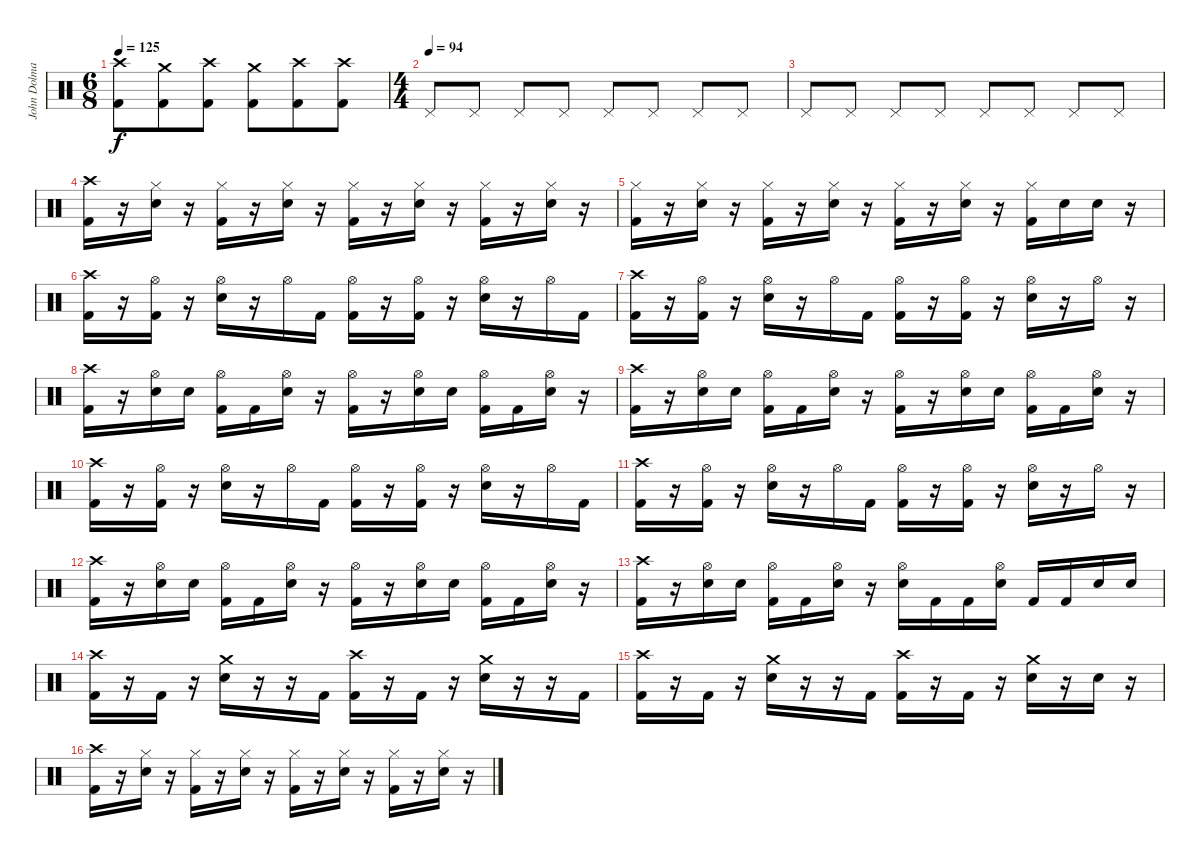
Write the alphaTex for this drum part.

\track ("John Dolmayan" "John Dolma") {instrument percussion}
\staff {score}
\articulation defaults
\ts (6 8)
\tempo 125
\clef neutral
\ks c
("Crash high (hit)" "Kick (hit) 2").8{dy f} ("Crash medium (hit)" "Kick (hit) 2").8 ("Crash high (hit)" "Kick (hit) 2").8 ("Crash medium (hit)" "Kick (hit) 2").8 ("Crash high (hit)" "Kick (hit) 2").8 ("Crash high (hit)" "Kick (hit) 2").8 |
\ts (4 4)
\tempo (94)
"Pedal Hi-Hat (hit)".8 "Pedal Hi-Hat (hit)".8 "Pedal Hi-Hat (hit)".8 "Pedal Hi-Hat (hit)".8 "Pedal Hi-Hat (hit)".8 "Pedal Hi-Hat (hit)".8 "Pedal Hi-Hat (hit)".8 "Pedal Hi-Hat (hit)".8 |
"Pedal Hi-Hat (hit)".8 "Pedal Hi-Hat (hit)".8 "Pedal Hi-Hat (hit)".8 "Pedal Hi-Hat (hit)".8 "Pedal Hi-Hat (hit)".8 "Pedal Hi-Hat (hit)".8 "Pedal Hi-Hat (hit)".8 "Pedal Hi-Hat (hit)".8 |
("Crash high (hit)" "Kick (hit) 2").16 r.16 ("Hi-Hat (closed)" "Electric Snare (hit)").16 r.16 ("Hi-Hat (closed)" "Kick (hit) 2").16 r.16 ("Hi-Hat (closed)" "Electric Snare (hit)").16 r.16 ("Hi-Hat (closed)" "Kick (hit) 2").16 r.16 ("Hi-Hat (closed)" "Electric Snare (hit)").16 r.16 ("Hi-Hat (closed)" "Kick (hit) 2").16 r.16 ("Hi-Hat (closed)" "Electric Snare (hit)").16 r.16 |
("Hi-Hat (closed)" "Kick (hit) 2").16 r.16 ("Hi-Hat (closed)" "Electric Snare (hit)").16 r.16 ("Hi-Hat (closed)" "Kick (hit) 2").16 r.16 ("Hi-Hat (closed)" "Electric Snare (hit)").16 r.16 ("Hi-Hat (closed)" "Kick (hit) 2").16 r.16 ("Hi-Hat (closed)" "Electric Snare (hit)").16 r.16 ("Hi-Hat (closed)" "Kick (hit) 2").16 "Electric Snare (hit)".16 "Electric Snare (hit)".16 r.16 |
("Crash high (hit)" "Kick (hit) 2").16 r.16 ("Hi-Hat (open)" "Kick (hit) 2").16 r.16 ("Hi-Hat (open)" "Electric Snare (hit)").16 r.16 "Hi-Hat (open)".16 "Kick (hit) 2".16 ("Hi-Hat (open)" "Kick (hit) 2").16 r.16 ("Hi-Hat (open)" "Kick (hit) 2").16 r.16 ("Hi-Hat (open)" "Electric Snare (hit)").16 r.16 "Hi-Hat (open)".16 "Kick (hit) 2".16 |
("Crash high (hit)" "Kick (hit) 2").16 r.16 ("Hi-Hat (open)" "Kick (hit) 2").16 r.16 ("Hi-Hat (open)" "Electric Snare (hit)").16 r.16 "Hi-Hat (open)".16 "Kick (hit) 2".16 ("Hi-Hat (open)" "Kick (hit) 2").16 r.16 ("Hi-Hat (open)" "Kick (hit) 2").16 r.16 ("Hi-Hat (open)" "Electric Snare (hit)").16 r.16 "Hi-Hat (open)".16 r.16 |
("Crash high (hit)" "Kick (hit) 2").16 r.16 ("Hi-Hat (open)" "Electric Snare (hit)").16 "Electric Snare (hit)".16 ("Hi-Hat (open)" "Kick (hit) 2").16 "Kick (hit) 2".16 ("Hi-Hat (open)" "Electric Snare (hit)").16 r.16 ("Hi-Hat (open)" "Kick (hit) 2").16 r.16 ("Hi-Hat (open)" "Electric Snare (hit)").16 "Electric Snare (hit)".16 ("Hi-Hat (open)" "Kick (hit) 2").16 "Kick (hit) 2".16 ("Hi-Hat (open)" "Electric Snare (hit)").16 r.16 |
("Crash high (hit)" "Kick (hit) 2").16 r.16 ("Hi-Hat (open)" "Electric Snare (hit)").16 "Electric Snare (hit)".16 ("Hi-Hat (open)" "Kick (hit) 2").16 "Kick (hit) 2".16 ("Hi-Hat (open)" "Electric Snare (hit)").16 r.16 ("Hi-Hat (open)" "Kick (hit) 2").16 r.16 ("Hi-Hat (open)" "Electric Snare (hit)").16 "Electric Snare (hit)".16 ("Hi-Hat (open)" "Kick (hit) 2").16 "Kick (hit) 2".16 ("Hi-Hat (open)" "Electric Snare (hit)").16 r.16 |
("Crash high (hit)" "Kick (hit) 2").16 r.16 ("Hi-Hat (open)" "Kick (hit) 2").16 r.16 ("Hi-Hat (open)" "Electric Snare (hit)").16 r.16 "Hi-Hat (open)".16 "Kick (hit) 2".16 ("Hi-Hat (open)" "Kick (hit) 2").16 r.16 ("Hi-Hat (open)" "Kick (hit) 2").16 r.16 ("Hi-Hat (open)" "Electric Snare (hit)").16 r.16 "Hi-Hat (open)".16 "Kick (hit) 2".16 |
("Crash high (hit)" "Kick (hit) 2").16 r.16 ("Hi-Hat (open)" "Kick (hit) 2").16 r.16 ("Hi-Hat (open)" "Electric Snare (hit)").16 r.16 "Hi-Hat (open)".16 "Kick (hit) 2".16 ("Hi-Hat (open)" "Kick (hit) 2").16 r.16 ("Hi-Hat (open)" "Kick (hit) 2").16 r.16 ("Hi-Hat (open)" "Electric Snare (hit)").16 r.16 "Hi-Hat (open)".16 r.16 |
("Crash high (hit)" "Kick (hit) 2").16 r.16 ("Hi-Hat (open)" "Electric Snare (hit)").16 "Electric Snare (hit)".16 ("Hi-Hat (open)" "Kick (hit) 2").16 "Kick (hit) 2".16 ("Hi-Hat (open)" "Electric Snare (hit)").16 r.16 ("Hi-Hat (open)" "Kick (hit) 2").16 r.16 ("Hi-Hat (open)" "Electric Snare (hit)").16 "Electric Snare (hit)".16 ("Hi-Hat (open)" "Kick (hit) 2").16 "Kick (hit) 2".16 ("Hi-Hat (open)" "Electric Snare (hit)").16 r.16 |
("Crash high (hit)" "Kick (hit) 2").16 r.16 ("Hi-Hat (open)" "Electric Snare (hit)").16 "Electric Snare (hit)".16 ("Hi-Hat (open)" "Kick (hit) 2").16 "Kick (hit) 2".16 ("Hi-Hat (open)" "Electric Snare (hit)").16 r.16 ("Hi-Hat (open)" "Electric Snare (hit)").16 "Kick (hit) 2".16 "Kick (hit) 2".16 ("Hi-Hat (open)" "Electric Snare (hit)").16 "Kick (hit) 2".16 "Kick (hit) 2".16 "Electric Snare (hit)".16 "Electric Snare (hit)".16 |
("Crash high (hit)" "Kick (hit) 2").16 r.16 "Kick (hit) 2".16 r.16 ("Crash medium (hit)" "Electric Snare (hit)").16 r.16 r.16 "Kick (hit) 2".16 ("Crash high (hit)" "Kick (hit) 2").16 r.16 "Kick (hit) 2".16 r.16 ("Crash medium (hit)" "Electric Snare (hit)").16 r.16 r.16 "Kick (hit) 2".16 |
("Crash high (hit)" "Kick (hit) 2").16 r.16 "Kick (hit) 2".16 r.16 ("Crash medium (hit)" "Electric Snare (hit)").16 r.16 r.16 "Kick (hit) 2".16 ("Crash high (hit)" "Kick (hit) 2").16 r.16 "Kick (hit) 2".16 r.16 ("Crash medium (hit)" "Electric Snare (hit)").16 r.16 "Electric Snare (hit)".16 r.16 |
("Crash high (hit)" "Kick (hit) 2").16 r.16 ("Hi-Hat (closed)" "Electric Snare (hit)").16 r.16 ("Hi-Hat (closed)" "Kick (hit) 2").16 r.16 ("Hi-Hat (closed)" "Electric Snare (hit)").16 r.16 ("Hi-Hat (closed)" "Kick (hit) 2").16 r.16 ("Hi-Hat (closed)" "Electric Snare (hit)").16 r.16 ("Hi-Hat (closed)" "Kick (hit) 2").16 r.16 ("Hi-Hat (closed)" "Electric Snare (hit)").16 r.16
